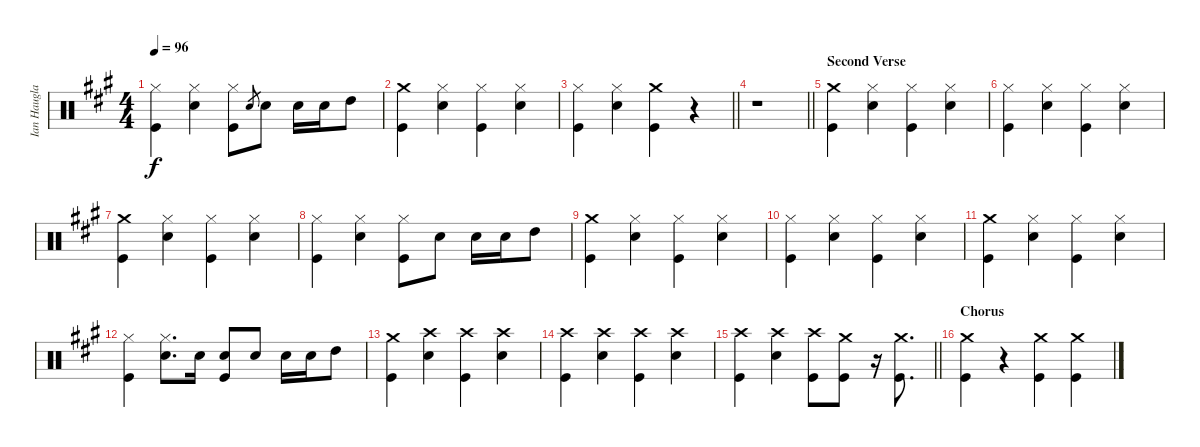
\track ("Ian Haugland" "Ian Haugla") {instrument percussion}
\staff {score}
\articulation defaults
\ts (4 4)
\tempo 96
\clef neutral
\ks a
("Hi-Hat (closed)" "Kick (hit)").4{dy f} ("Hi-Hat (closed)" "Snare (hit) 2").4 ("Hi-Hat (closed)" "Kick (hit)").8 "Snare (hit) 2".8{gr} "Snare (hit) 2".8 "Snare (hit) 2".16 "Snare (hit) 2".16 "High Tom (hit)".8 |
("Crash medium (hit)" "Kick (hit)").4 ("Hi-Hat (closed)" "Snare (hit) 2").4 ("Hi-Hat (closed)" "Kick (hit)").4 ("Hi-Hat (closed)" "Snare (hit) 2").4 |
\barLineRight lightlight
("Hi-Hat (closed)" "Kick (hit)").4 ("Hi-Hat (closed)" "Snare (hit) 2").4 ("Crash medium (hit)" "Kick (hit)").4 r.4 |
\section ("" "")
\barLineRight lightlight
r.1 |
\section ("" "Second Verse")
("Crash medium (hit)" "Kick (hit)").4 ("Hi-Hat (closed)" "Snare (hit) 2").4 ("Hi-Hat (closed)" "Kick (hit)").4 ("Hi-Hat (closed)" "Snare (hit) 2").4 |
("Hi-Hat (closed)" "Kick (hit)").4 ("Hi-Hat (closed)" "Snare (hit) 2").4 ("Hi-Hat (closed)" "Kick (hit)").4 ("Hi-Hat (closed)" "Snare (hit) 2").4 |
("Crash medium (hit)" "Kick (hit)").4 ("Hi-Hat (closed)" "Snare (hit) 2").4 ("Hi-Hat (closed)" "Kick (hit)").4 ("Hi-Hat (closed)" "Snare (hit) 2").4 |
("Hi-Hat (closed)" "Kick (hit)").4 ("Hi-Hat (closed)" "Snare (hit) 2").4 ("Hi-Hat (closed)" "Kick (hit)").8 "Snare (hit) 2".8 "Snare (hit) 2".16 "Snare (hit) 2".16 "High Tom (hit)".8 |
("Crash medium (hit)" "Kick (hit)").4 ("Hi-Hat (closed)" "Snare (hit) 2").4 ("Hi-Hat (closed)" "Kick (hit)").4 ("Hi-Hat (closed)" "Snare (hit) 2").4 |
("Hi-Hat (closed)" "Kick (hit)").4 ("Hi-Hat (closed)" "Snare (hit) 2").4 ("Hi-Hat (closed)" "Kick (hit)").4 ("Hi-Hat (closed)" "Snare (hit) 2").4 |
("Crash medium (hit)" "Kick (hit)").4 ("Hi-Hat (closed)" "Snare (hit) 2").4 ("Hi-Hat (closed)" "Kick (hit)").4 ("Hi-Hat (closed)" "Snare (hit) 2").4 |
("Hi-Hat (closed)" "Kick (hit)").4 ("Hi-Hat (closed)" "Snare (hit) 2").8{d} "Snare (hit) 2".16 ("Snare (hit) 2" "Kick (hit)").8 "Snare (hit) 2".8 "Snare (hit) 2".16 "Snare (hit) 2".16 "High Tom (hit)".8 |
("Crash medium (hit)" "Kick (hit)").4 ("Crash high (hit)" "Snare (hit) 2").4 ("Crash high (hit)" "Kick (hit)").4 ("Crash high (hit)" "Snare (hit) 2").4 |
("Crash high (hit)" "Kick (hit)").4 ("Crash high (hit)" "Snare (hit) 2").4 ("Crash high (hit)" "Kick (hit)").4 ("Crash high (hit)" "Snare (hit) 2").4 |
\barLineRight lightlight
("Crash high (hit)" "Kick (hit)").4 ("Crash high (hit)" "Snare (hit) 2").4 ("Crash high (hit)" "Kick (hit)").8 ("Crash medium (hit)" "Kick (hit)").8 r.16 ("Crash medium (hit)" "Kick (hit)").8{d} |
\section ("" "Chorus")
("Crash medium (hit)" "Kick (hit)").4 r.4 ("Crash medium (hit)" "Kick (hit)").4 ("Crash medium (hit)" "Kick (hit)").4
